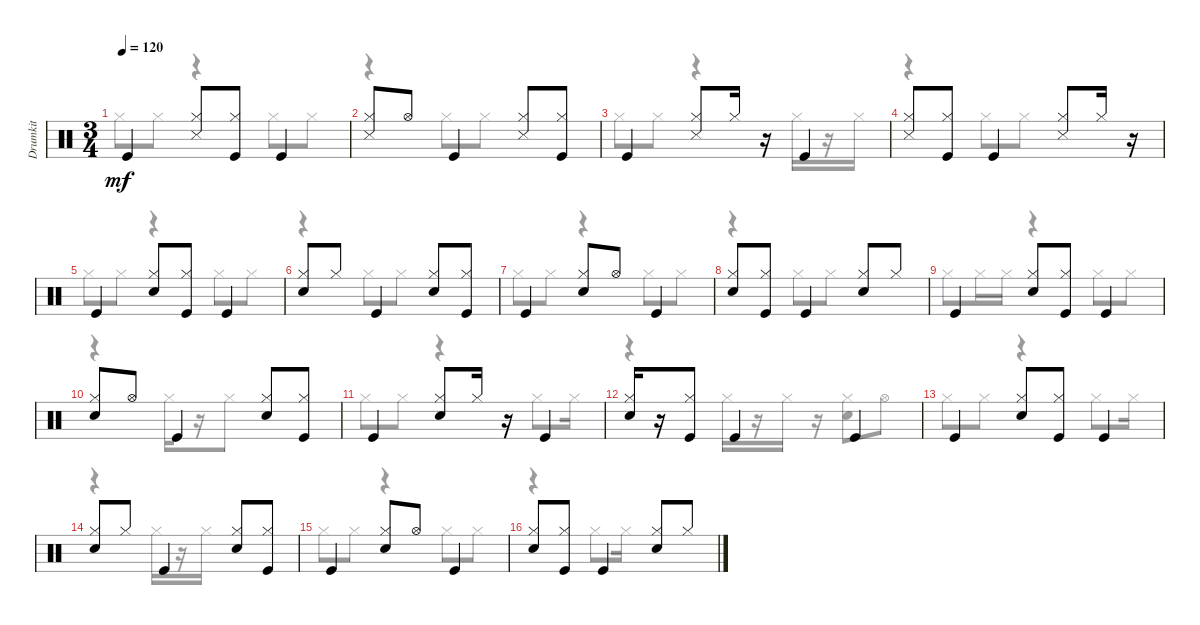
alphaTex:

\track ("Drumkit" "Drumkit") {instrument percussion}
\staff {score}
\articulation defaults
\voice
\ts (3 4)
\tempo 120
\clef neutral
\ks aminor "Kick (hit)".4{dy mf}
("Snare (side stick) 3" "Hi-Hat (closed)").8 ("Hi-Hat (closed)" "Kick (hit)").8 "Kick (hit)".4 |
("Hi-Hat (closed)" "Snare (side stick) 3").8 "Hi-Hat (open)".8 "Kick (hit)".4 ("Snare (side stick) 3" "Hi-Hat (closed)").8 ("Kick (hit)" "Hi-Hat (closed)").8 |
"Kick (hit)".4 ("Hi-Hat (closed)" "Snare (side stick) 3").8 "Hi-Hat (closed)".16 r.16 "Kick (hit)".4 |
("Snare (side stick) 3" "Hi-Hat (closed)").8 ("Kick (hit)" "Hi-Hat (closed)").8 "Kick (hit)".4 ("Snare (side stick) 3" "Hi-Hat (closed)").8 "Hi-Hat (closed)".16 r.16 |
"Kick (hit)".4 ("Snare (hit) 2" "Hi-Hat (closed)").8 ("Hi-Hat (closed)" "Kick (hit)").8 "Kick (hit)".4 |
("Snare (hit) 2" "Hi-Hat (closed)").8 "Hi-Hat (closed)".8 "Kick (hit)".4 ("Snare (hit) 2" "Hi-Hat (closed)").8 ("Kick (hit)" "Hi-Hat (closed)").8 |
"Kick (hit)".4 ("Snare (hit) 2" "Hi-Hat (closed)").8 "Hi-Hat (open)".8 "Kick (hit)".4 |
("Hi-Hat (closed)" "Snare (hit) 2").8 ("Hi-Hat (closed)" "Kick (hit)").8 "Kick (hit)".4 ("Hi-Hat (closed)" "Snare (hit) 2").8 "Hi-Hat (closed)".8 |
"Kick (hit)".4 ("Snare (hit) 2" "Hi-Hat (closed)").8 ("Hi-Hat (closed)" "Kick (hit)").8 "Kick (hit)".4 |
("Snare (hit) 2" "Hi-Hat (closed)").8 "Hi-Hat (open)".8 "Kick (hit)".4 ("Snare (hit) 2" "Hi-Hat (closed)").8 ("Hi-Hat (closed)" "Kick (hit)").8 |
"Kick (hit)".4 ("Snare (hit) 2" "Hi-Hat (closed)").8 "Hi-Hat (closed)".16 r.16 "Kick (hit)".4 |
("Snare (hit) 2" "Hi-Hat (closed)").16 r.16 ("Hi-Hat (closed)" "Kick (hit)").8 "Kick (hit)".4 "Kick (hit)".4 |
"Kick (hit)".4 ("Hi-Hat (closed)" "Snare (hit) 2").8 ("Hi-Hat (closed)" "Kick (hit)").8 "Kick (hit)".4 |
("Snare (hit) 2" "Hi-Hat (closed)").8 "Hi-Hat (closed)".8 "Kick (hit)".4 ("Snare (hit) 2" "Hi-Hat (closed)").8 ("Hi-Hat (closed)" "Kick (hit)").8 |
"Kick (hit)".4 ("Hi-Hat (closed)" "Snare (hit) 2").8 "Hi-Hat (open)".8 "Kick (hit)".4 |
("Snare (hit) 2" "Hi-Hat (closed)").8 ("Hi-Hat (closed)" "Kick (hit)").8 "Kick (hit)".4 ("Snare (hit) 2" "Hi-Hat (closed)").8 "Hi-Hat (closed)".8
\voice
\clef neutral
\ottava regular
\simile none
\ks aminor "Hi-Hat (closed)".8{dy mf} "Hi-Hat (closed)".8
r.4 "Hi-Hat (closed)".8 "Hi-Hat (closed)".8 |
r.4 "Hi-Hat (closed)".8 "Hi-Hat (closed)".8 |
"Hi-Hat (closed)".8 "Hi-Hat (closed)".8 r.4 "Hi-Hat (closed)".16 r.16 "Hi-Hat (closed)".16 |
r.4 "Hi-Hat (closed)".8 "Hi-Hat (closed)".8 |
"Hi-Hat (closed)".8 "Hi-Hat (closed)".8 r.4 "Hi-Hat (closed)".8 "Hi-Hat (closed)".8 |
r.4 "Hi-Hat (closed)".8 "Hi-Hat (closed)".8 |
"Hi-Hat (closed)".8 "Hi-Hat (closed)".8 r.4 "Hi-Hat (closed)".8 "Hi-Hat (closed)".8 |
r.4 "Hi-Hat (closed)".8 "Hi-Hat (closed)".8 |
"Hi-Hat (closed)".8 "Hi-Hat (closed)".16 "Hi-Hat (closed)".16 r.4 "Hi-Hat (closed)".8 "Hi-Hat (closed)".8 |
r.4 "Hi-Hat (closed)".16 r.16 "Hi-Hat (closed)".8 |
"Hi-Hat (closed)".8 "Hi-Hat (closed)".8 r.4 "Hi-Hat (closed)".8 "Hi-Hat (closed)".16 |
r.4 "Hi-Hat (closed)".16 r.16 "Hi-Hat (closed)".16 r.16 ("Hi-Hat (closed)" "Snare (hit) 2").8 "Hi-Hat (open)".8 |
"Hi-Hat (closed)".8 "Hi-Hat (closed)".8 r.4 "Hi-Hat (closed)".8 "Hi-Hat (closed)".16 |
r.4 "Hi-Hat (closed)".16 r.16 "Hi-Hat (closed)".16 |
"Hi-Hat (closed)".8 "Hi-Hat (closed)".8 r.4 "Hi-Hat (closed)".8 "Hi-Hat (closed)".8 |
r.4 "Hi-Hat (closed)".8 "Hi-Hat (closed)".16
